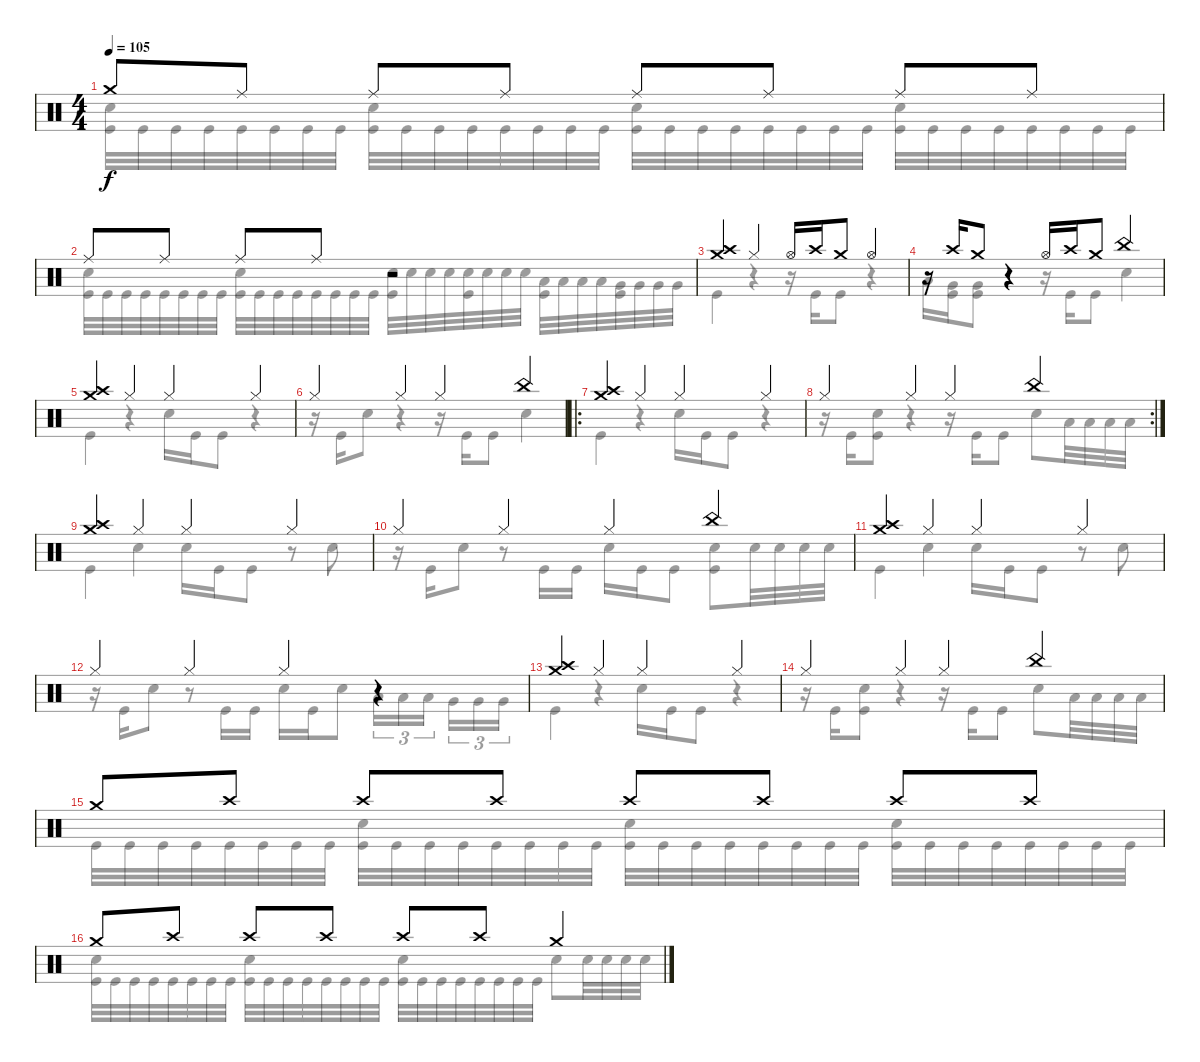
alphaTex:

\track "" {instrument percussion}
\staff {score}
\articulation defaults
\voice
\ts (4 4)
\tempo 105
\clef neutral
\ks c "Crash medium (hit)".8{dy f} "Ride (middle)".8 "Ride (middle)".8 "Ride (middle)".8 "Ride (middle)".8 "Ride (middle)".8 "Ride (middle)".8 "Ride (middle)".8
|
"Ride (middle)".8 "Ride (middle)".8 "Ride (middle)".8 "Ride (middle)".8 r.2 |
("Crash high (hit)" "Crash medium (hit)").4 "Hi-Hat (closed)".4 "Hi-Hat (open)".16 "Crash high (hit)".16 "Crash medium (hit)".8 "Hi-Hat (open)".4 |
r.16 "Crash high (hit)".16 "Crash medium (hit)".8 r.4 "Hi-Hat (open)".16 "Crash high (hit)".16 "Crash medium (hit)".8 "China (hit)".4 |
("Crash high (hit)" "Crash medium (hit)").4 "Hi-Hat (closed)".4 "Hi-Hat (closed)".4 "Hi-Hat (closed)".4 |
"Hi-Hat (closed)".4 "Hi-Hat (closed)".4 "Hi-Hat (closed)".4 "China (hit)".4 |
\ro
("Crash high (hit)" "Crash medium (hit)").4 "Hi-Hat (closed)".4 "Hi-Hat (closed)".4 "Hi-Hat (closed)".4 |
\rc 2 "Hi-Hat (closed)".4 "Hi-Hat (closed)".4 "Hi-Hat (closed)".4 "China (hit)".4
|
("Crash high (hit)" "Crash medium (hit)").4 "Hi-Hat (closed)".4 "Hi-Hat (closed)".4 "Hi-Hat (closed)".4 |
"Hi-Hat (closed)".4 "Hi-Hat (closed)".4 "Hi-Hat (closed)".4 "China (hit)".4 |
("Crash high (hit)" "Crash medium (hit)").4 "Hi-Hat (closed)".4 "Hi-Hat (closed)".4 "Hi-Hat (closed)".4 |
"Hi-Hat (closed)".4 "Hi-Hat (closed)".4 "Hi-Hat (closed)".4 r.4 |
("Crash high (hit)" "Crash medium (hit)").4 "Hi-Hat (closed)".4 "Hi-Hat (closed)".4 "Hi-Hat (closed)".4 |
"Hi-Hat (closed)".4 "Hi-Hat (closed)".4 "Hi-Hat (closed)".4 "China (hit)".4 |
"Crash medium (hit)".8 "Crash high (hit)".8 "Crash high (hit)".8 "Crash high (hit)".8 "Crash high (hit)".8 "Crash high (hit)".8 "Crash high (hit)".8 "Crash high (hit)".8 |
"Crash medium (hit)".8 "Crash high (hit)".8 "Crash high (hit)".8 "Crash high (hit)".8 "Crash high (hit)".8 "Crash high (hit)".8 "Crash medium (hit)".4
\voice
\clef neutral
\ottava regular
\simile none
\ks c
("Snare (hit) 2" "Kick (hit)").32{dy f} "Kick (hit)".32 "Kick (hit)".32 "Kick (hit)".32 "Kick (hit)".32 "Kick (hit)".32 "Kick (hit)".32 "Kick (hit)".32 ("Snare (hit) 2" "Kick (hit)").32 "Kick (hit)".32 "Kick (hit)".32 "Kick (hit)".32 "Kick (hit)".32 "Kick (hit)".32 "Kick (hit)".32 "Kick (hit)".32 ("Snare (hit) 2" "Kick (hit)").32 "Kick (hit)".32 "Kick (hit)".32 "Kick (hit)".32 "Kick (hit)".32 "Kick (hit)".32 "Kick (hit)".32 "Kick (hit)".32 ("Snare (hit) 2" "Kick (hit)").32 "Kick (hit)".32 "Kick (hit)".32 "Kick (hit)".32 "Kick (hit)".32 "Kick (hit)".32 "Kick (hit)".32 "Kick (hit)".32 |
("Snare (hit) 2" "Kick (hit)").32 "Kick (hit)".32 "Kick (hit)".32 "Kick (hit)".32 "Kick (hit)".32 "Kick (hit)".32 "Kick (hit)".32 "Kick (hit)".32 ("Snare (hit) 2" "Kick (hit)").32 "Kick (hit)".32 "Kick (hit)".32 "Kick (hit)".32 "Kick (hit)".32 "Kick (hit)".32 "Kick (hit)".32 "Kick (hit)".32 ("Snare (hit) 2" "Kick (hit)").32 "Snare (hit) 2".32 "Snare (hit) 2".32 "Snare (hit) 2".32 ("Snare (hit) 2" "Kick (hit)").32 "Snare (hit) 2".32 "Snare (hit) 2".32 "Snare (hit) 2".32 ("Low Tom (hit)" "Kick (hit)").32 "Low Tom (hit)".32 "Low Tom (hit)".32 "Low Tom (hit)".32 ("Very Low Tom (hit)" "Kick (hit)").32 "Very Low Tom (hit)".32 "Very Low Tom (hit)".32 "Very Low Tom (hit)".32 |
"Kick (hit)".4 r.4 r.16 "Kick (hit)".16 "Kick (hit)".8 r.4 |
"Low Tom (hit)".16 ("Very Low Tom (hit)" "Kick (hit)").16 ("Very Low Tom (hit)" "Kick (hit)").8 r.4 r.16 "Kick (hit)".16 "Kick (hit)".8 "Snare (hit) 2".4 |
"Kick (hit)".4 r.4 "Snare (hit) 2".16 "Kick (hit)".16 "Kick (hit)".8 r.4 |
r.16 "Kick (hit)".16 "Snare (hit) 2".8 r.4 r.16 "Kick (hit)".16 "Kick (hit)".8 "Snare (hit) 2".4 |
"Kick (hit)".4 r.4 "Snare (hit) 2".16 "Kick (hit)".16 "Kick (hit)".8 r.4 |
r.16 "Kick (hit)".16 ("Snare (hit) 2" "Kick (hit)").8 r.4 r.16 "Kick (hit)".16 "Kick (hit)".8 "Snare (hit) 2".8 "Low Tom (hit)".32 "Low Tom (hit)".32 "Low Tom (hit)".32 "Low Tom (hit)".32 |
"Kick (hit)".4 "Snare (hit) 2".4 "Snare (hit) 2".16 "Kick (hit)".16 "Kick (hit)".8 r.8 "Snare (hit) 2".8 |
r.16 "Kick (hit)".16 "Snare (hit) 2".8 r.8 "Kick (hit)".16 "Kick (hit)".16 "Snare (hit) 2".16 "Kick (hit)".16 "Kick (hit)".8 ("Snare (hit) 2" "Kick (hit)").8 "Snare (hit) 2".32 "Snare (hit) 2".32 "Snare (hit) 2".32 "Snare (hit) 2".32 |
"Kick (hit)".4 "Snare (hit) 2".4 "Snare (hit) 2".16 "Kick (hit)".16 "Kick (hit)".8 r.8 "Snare (hit) 2".8 |
r.16 "Kick (hit)".16 "Snare (hit) 2".8 r.8 "Kick (hit)".16 "Kick (hit)".16 "Snare (hit) 2".16 "Kick (hit)".16 "Snare (hit) 2".8 "Low Tom (hit)".16{tu (3 2)} "Low Tom (hit)".16{tu (3 2)} "Low Tom (hit)".16{tu (3 2) beam splitsecondary} "Very Low Tom (hit)".16{tu (3 2)} "Very Low Tom (hit)".16{tu (3 2)} "Very Low Tom (hit)".16{tu (3 2)} |
"Kick (hit)".4 r.4 "Snare (hit) 2".16 "Kick (hit)".16 "Kick (hit)".8 r.4 |
r.16 "Kick (hit)".16 ("Snare (hit) 2" "Kick (hit)").8 r.4 r.16 "Kick (hit)".16 "Kick (hit)".8 "Snare (hit) 2".8 "Low Tom (hit)".32 "Low Tom (hit)".32 "Low Tom (hit)".32 "Low Tom (hit)".32 |
"Kick (hit)".32 "Kick (hit)".32 "Kick (hit)".32 "Kick (hit)".32 "Kick (hit)".32 "Kick (hit)".32 "Kick (hit)".32 "Kick (hit)".32 ("Snare (hit) 2" "Kick (hit)").32 "Kick (hit)".32 "Kick (hit)".32 "Kick (hit)".32 "Kick (hit)".32 "Kick (hit)".32 "Kick (hit)".32 "Kick (hit)".32 ("Snare (hit) 2" "Kick (hit)").32 "Kick (hit)".32 "Kick (hit)".32 "Kick (hit)".32 "Kick (hit)".32 "Kick (hit)".32 "Kick (hit)".32 "Kick (hit)".32 ("Snare (hit) 2" "Kick (hit)").32 "Kick (hit)".32 "Kick (hit)".32 "Kick (hit)".32 "Kick (hit)".32 "Kick (hit)".32 "Kick (hit)".32 "Kick (hit)".32 |
("Snare (hit) 2" "Kick (hit)").32 "Kick (hit)".32 "Kick (hit)".32 "Kick (hit)".32 "Kick (hit)".32 "Kick (hit)".32 "Kick (hit)".32 "Kick (hit)".32 ("Snare (hit) 2" "Kick (hit)").32 "Kick (hit)".32 "Kick (hit)".32 "Kick (hit)".32 "Kick (hit)".32 "Kick (hit)".32 "Kick (hit)".32 "Kick (hit)".32 ("Snare (hit) 2" "Kick (hit)").32 "Kick (hit)".32 "Kick (hit)".32 "Kick (hit)".32 "Kick (hit)".32 "Kick (hit)".32 "Kick (hit)".32 "Kick (hit)".32 "Snare (hit) 2".8 "Snare (hit) 2".32 "Snare (hit) 2".32 "Snare (hit) 2".32 "Snare (hit) 2".32
